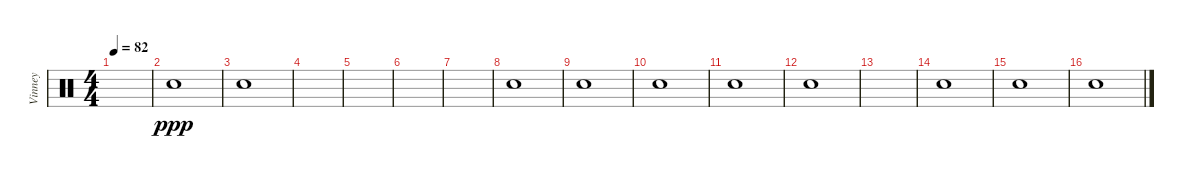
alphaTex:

\track ("Vinney" "Vinney") {instrument percussion}
\staff {score}
\articulation defaults
\ts (4 4)
\tempo 82
\clef neutral
\ks c
|
"Snare (hit)".1{dy ppp} |
"Snare (hit)".1 |
|
|
|
|
"Snare (hit)".1 |
"Snare (hit)".1 |
"Snare (hit)".1 |
"Snare (hit)".1 |
"Snare (hit)".1 |
|
"Snare (hit)".1 |
"Snare (hit)".1 |
"Snare (hit)".1
